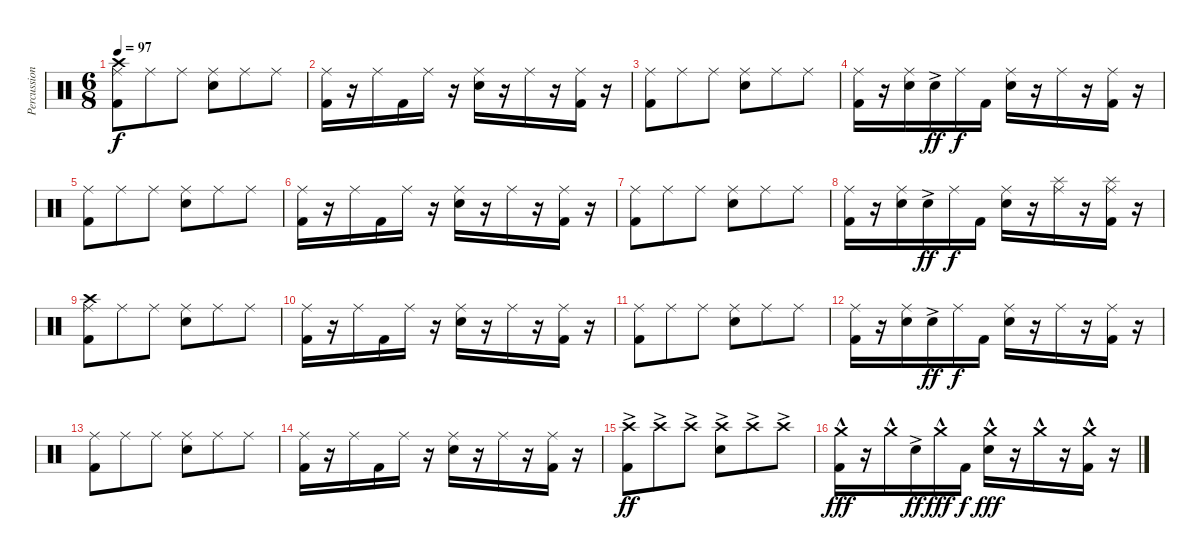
\track ("Percussion" "Percussion") {instrument percussion}
\staff {score}
\articulation defaults
\ts (6 8)
\tempo 97
\clef neutral
\ks c
("Crash high (hit)" "Ride (middle)" "Kick (hit) 2").8{dy f} "Ride (middle)".8 "Ride (middle)".8 ("Ride (middle)" "Electric Snare (hit)").8 "Ride (middle)".8 "Ride (middle)".8 |
("Ride (middle)" "Kick (hit) 2").16 r.16 "Ride (middle)".16 "Kick (hit) 2".16 "Ride (middle)".16 r.16 ("Ride (middle)" "Electric Snare (hit)").16 r.16 "Ride (middle)".16 r.16 ("Ride (middle)" "Kick (hit) 2").16 r.16 |
("Ride (middle)" "Kick (hit) 2").8 "Ride (middle)".8 "Ride (middle)".8 ("Ride (middle)" "Electric Snare (hit)").8 "Ride (middle)".8 "Ride (middle)".8 |
("Ride (middle)" "Kick (hit) 2").16 r.16 ("Ride (middle)" "Electric Snare (hit)").16 "Electric Snare (hit)"{ac}.16{dy ff} "Ride (middle)".16{dy f} "Kick (hit) 2".16 ("Ride (middle)" "Electric Snare (hit)").16 r.16 "Ride (middle)".16 r.16 ("Ride (middle)" "Kick (hit) 2").16 r.16 |
("Ride (middle)" "Kick (hit) 2").8 "Ride (middle)".8 "Ride (middle)".8 ("Ride (middle)" "Electric Snare (hit)").8 "Ride (middle)".8 "Ride (middle)".8 |
("Ride (middle)" "Kick (hit) 2").16 r.16 "Ride (middle)".16 "Kick (hit) 2".16 "Ride (middle)".16 r.16 ("Ride (middle)" "Electric Snare (hit)").16 r.16 "Ride (middle)".16 r.16 ("Ride (middle)" "Kick (hit) 2").16 r.16 |
("Ride (middle)" "Kick (hit) 2").8 "Ride (middle)".8 "Ride (middle)".8 ("Ride (middle)" "Electric Snare (hit)").8 "Ride (middle)".8 "Ride (middle)".8 |
("Ride (middle)" "Kick (hit) 2").16 r.16 ("Ride (middle)" "Electric Snare (hit)").16 "Electric Snare (hit)"{ac}.16{dy ff} "Ride (middle)".16{dy f} "Kick (hit) 2".16 ("Ride (middle)" "Electric Snare (hit)").16 r.16 ("Splash (hit)" "Ride (middle)").16 r.16 ("Splash (hit)" "Ride (middle)" "Kick (hit) 2").16 r.16 |
("Crash high (hit)" "Ride (middle)" "Kick (hit) 2").8 "Ride (middle)".8 "Ride (middle)".8 ("Ride (middle)" "Electric Snare (hit)").8 "Ride (middle)".8 "Ride (middle)".8 |
("Ride (middle)" "Kick (hit) 2").16 r.16 "Ride (middle)".16 "Kick (hit) 2".16 "Ride (middle)".16 r.16 ("Ride (middle)" "Electric Snare (hit)").16 r.16 "Ride (middle)".16 r.16 ("Ride (middle)" "Kick (hit) 2").16 r.16 |
("Ride (middle)" "Kick (hit) 2").8 "Ride (middle)".8 "Ride (middle)".8 ("Ride (middle)" "Electric Snare (hit)").8 "Ride (middle)".8 "Ride (middle)".8 |
("Ride (middle)" "Kick (hit) 2").16 r.16 ("Ride (middle)" "Electric Snare (hit)").16 "Electric Snare (hit)"{ac}.16{dy ff} "Ride (middle)".16{dy f} "Kick (hit) 2".16 ("Ride (middle)" "Electric Snare (hit)").16 r.16 "Ride (middle)".16 r.16 ("Ride (middle)" "Kick (hit) 2").16 r.16 |
("Ride (middle)" "Kick (hit) 2").8 "Ride (middle)".8 "Ride (middle)".8 ("Ride (middle)" "Electric Snare (hit)").8 "Ride (middle)".8 "Ride (middle)".8 |
("Ride (middle)" "Kick (hit) 2").16 r.16 "Ride (middle)".16 "Kick (hit) 2".16 "Ride (middle)".16 r.16 ("Ride (middle)" "Electric Snare (hit)").16 r.16 "Ride (middle)".16 r.16 ("Ride (middle)" "Kick (hit) 2").16 r.16 |
("Crash high (hit)"{ac} "Kick (hit) 2").8{dy ff} "Crash high (hit)"{ac}.8 "Crash high (hit)"{ac}.8 ("Crash high (hit)"{ac} "Electric Snare (hit)").8 "Crash high (hit)"{ac}.8 "Crash high (hit)"{ac}.8 |
("Crash medium (hit)"{hac} "Kick (hit) 2").16{dy fff} r.16 "Crash medium (hit)"{hac}.16 "Electric Snare (hit)"{ac}.16{dy ff} "Crash medium (hit)"{hac}.16{dy fff} "Kick (hit) 2".16{dy f} ("Crash medium (hit)"{hac} "Electric Snare (hit)").16{dy fff} r.16 "Crash medium (hit)"{hac}.16 r.16 ("Crash medium (hit)"{hac} "Kick (hit) 2").16 r.16
